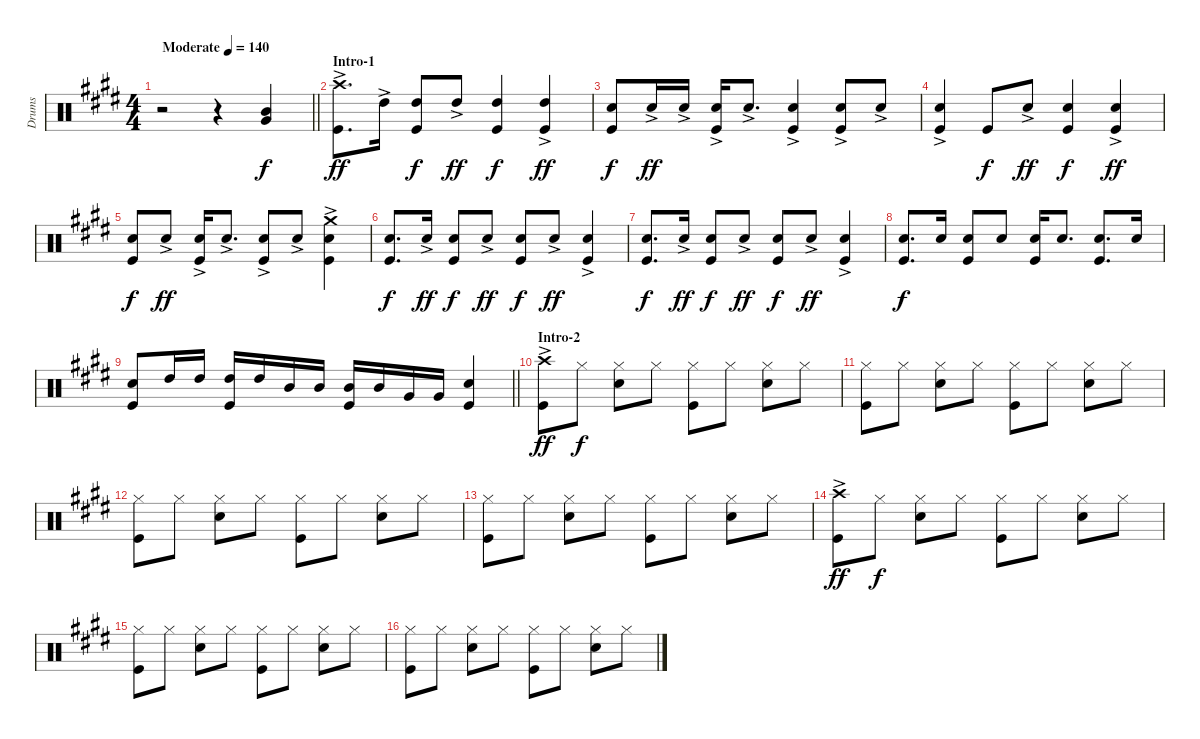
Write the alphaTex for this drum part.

\track ("Drums" "Drums") {instrument percussion}
\staff {score}
\articulation defaults
\ts (4 4)
\tempo (140 "Moderate")
\clef neutral
\barLineRight lightlight
\ks e
r.2{dy f} r.4 ("Mid Tom (hit)" "Very Low Tom (hit)").4 |
\section ("" "Intro-1")
("Crash high (hit)"{ac} "Kick (hit)").8{d dy ff} "High Tom (hit)"{ac}.16 ("High Tom (hit)" "Kick (hit)").8{dy f} "High Tom (hit)"{ac}.8{dy ff} ("High Tom (hit)" "Kick (hit)").4{dy f} ("High Tom (hit)"{ac} "Kick (hit)").4{dy ff} |
("Kick (hit)" "Snare (hit) 2").8{dy f beam Up} "Snare (hit) 2"{ac}.16{dy ff beam Up} "Snare (hit) 2"{ac}.16{beam Up} ("Snare (hit) 2"{ac} "Kick (hit)").16 "Snare (hit) 2"{ac}.8{d} ("Snare (hit) 2"{ac} "Kick (hit)").4 ("Kick (hit)" "Snare (hit) 2"{ac}).8 "Snare (hit) 2"{ac}.8 |
("Kick (hit)" "Snare (hit) 2"{ac}).4 "Kick (hit)".8{dy f} "Snare (hit) 2"{ac}.8{dy ff} ("Snare (hit) 2" "Kick (hit)").4{dy f} ("Snare (hit) 2"{ac} "Kick (hit)").4{dy ff} |
("Kick (hit)" "Snare (hit) 2").8{dy f} "Snare (hit) 2"{ac}.8{dy ff} ("Kick (hit)" "Snare (hit) 2"{ac}).16 "Snare (hit) 2"{ac}.8{d} ("Snare (hit) 2"{ac} "Kick (hit)").8 "Snare (hit) 2"{ac}.8 ("Snare (hit) 2"{ac} "Kick (hit)" "Crash medium (hit)"{ac}).4 |
("Kick (hit)" "Snare (hit) 2").8{d dy f} "Snare (hit) 2"{ac}.16{dy ff} ("Kick (hit)" "Snare (hit) 2").8{dy f} "Snare (hit) 2"{ac}.8{dy ff} ("Snare (hit) 2" "Kick (hit)").8{dy f} "Snare (hit) 2"{ac}.8{dy ff} ("Snare (hit) 2"{ac} "Kick (hit)").4 |
("Kick (hit)" "Snare (hit) 2").8{d dy f} "Snare (hit) 2"{ac}.16{dy ff} ("Kick (hit)" "Snare (hit) 2").8{dy f} "Snare (hit) 2"{ac}.8{dy ff} ("Snare (hit) 2" "Kick (hit)").8{dy f} "Snare (hit) 2"{ac}.8{dy ff} ("Snare (hit) 2"{ac} "Kick (hit)").4 |
("Kick (hit)" "Snare (hit) 2").8{d dy f} "Snare (hit) 2".16 ("Snare (hit) 2" "Kick (hit)").8 "Snare (hit) 2".8 ("Kick (hit)" "Snare (hit) 2").16 "Snare (hit) 2".8{d} ("Snare (hit) 2" "Kick (hit)").8{d} "Snare (hit) 2".16 |
\barLineRight lightlight
("Snare (hit) 2" "Kick (hit)").8 "High Tom (hit)".16 "High Tom (hit)".16 ("High Tom (hit)" "Kick (hit)").16 "High Tom (hit)".16 "Mid Tom (hit)".16 "Mid Tom (hit)".16 ("Mid Tom (hit)" "Kick (hit)").16 "Mid Tom (hit)".16 "Very Low Tom (hit)".16 "Very Low Tom (hit)".16 ("Snare (hit) 2" "Kick (hit)").4 |
\section ("" "Intro-2")
("Crash high (hit)"{ac} "Kick (hit)").8{dy ff} "Hi-Hat (closed)".8{dy f} ("Hi-Hat (closed)" "Snare (hit) 2").8 "Hi-Hat (closed)".8 ("Kick (hit)" "Hi-Hat (closed)").8 "Hi-Hat (closed)".8 ("Snare (hit) 2" "Hi-Hat (closed)").8 "Hi-Hat (closed)".8 |
("Kick (hit)" "Hi-Hat (closed)").8 "Hi-Hat (closed)".8 ("Snare (hit) 2" "Hi-Hat (closed)").8 "Hi-Hat (closed)".8 ("Kick (hit)" "Hi-Hat (closed)").8 "Hi-Hat (closed)".8 ("Snare (hit) 2" "Hi-Hat (closed)").8 "Hi-Hat (closed)".8 |
("Kick (hit)" "Hi-Hat (closed)").8 "Hi-Hat (closed)".8 ("Snare (hit) 2" "Hi-Hat (closed)").8 "Hi-Hat (closed)".8 ("Kick (hit)" "Hi-Hat (closed)").8 "Hi-Hat (closed)".8 ("Snare (hit) 2" "Hi-Hat (closed)").8 "Hi-Hat (closed)".8 |
("Kick (hit)" "Hi-Hat (closed)").8 "Hi-Hat (closed)".8 ("Snare (hit) 2" "Hi-Hat (closed)").8 "Hi-Hat (closed)".8 ("Kick (hit)" "Hi-Hat (closed)").8 "Hi-Hat (closed)".8 ("Snare (hit) 2" "Hi-Hat (closed)").8 "Hi-Hat (closed)".8 |
("Crash high (hit)"{ac} "Kick (hit)").8{dy ff} "Hi-Hat (closed)".8{dy f} ("Hi-Hat (closed)" "Snare (hit) 2").8 "Hi-Hat (closed)".8 ("Kick (hit)" "Hi-Hat (closed)").8 "Hi-Hat (closed)".8 ("Snare (hit) 2" "Hi-Hat (closed)").8 "Hi-Hat (closed)".8 |
("Kick (hit)" "Hi-Hat (closed)").8 "Hi-Hat (closed)".8 ("Snare (hit) 2" "Hi-Hat (closed)").8 "Hi-Hat (closed)".8 ("Kick (hit)" "Hi-Hat (closed)").8 "Hi-Hat (closed)".8 ("Snare (hit) 2" "Hi-Hat (closed)").8 "Hi-Hat (closed)".8 |
("Kick (hit)" "Hi-Hat (closed)").8 "Hi-Hat (closed)".8 ("Snare (hit) 2" "Hi-Hat (closed)").8 "Hi-Hat (closed)".8 ("Kick (hit)" "Hi-Hat (closed)").8 "Hi-Hat (closed)".8 ("Snare (hit) 2" "Hi-Hat (closed)").8 "Hi-Hat (closed)".8
